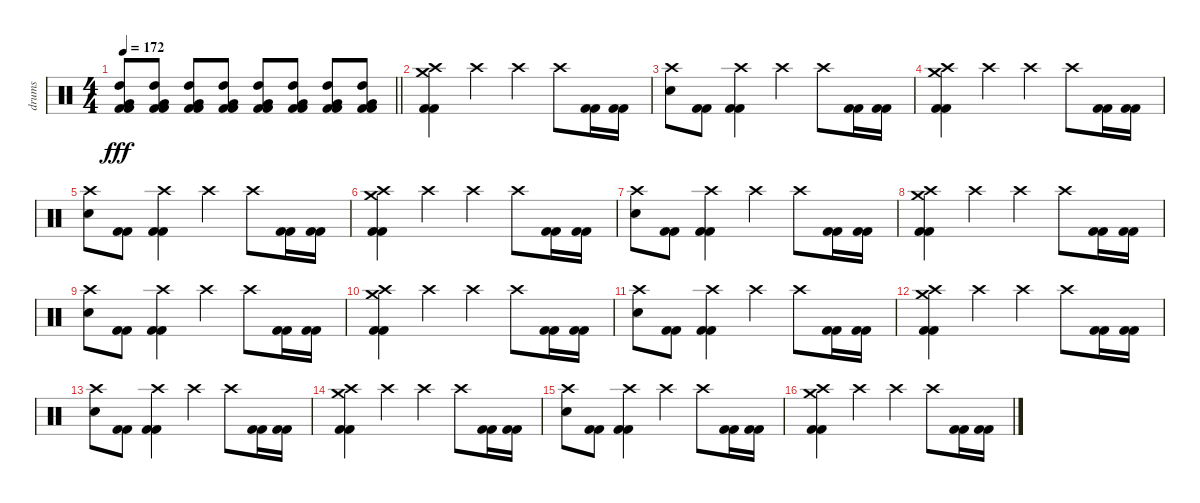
\track ("drums" "drums") {instrument percussion}
\staff {score}
\articulation defaults
\ts (4 4)
\tempo 172
\clef neutral
\barLineRight lightlight
\ks c
("Kick (hit) 2" "Kick (hit) 2" "Very Low Tom (hit)" "High Tom (hit)").8{dy fff} ("Kick (hit) 2" "Kick (hit) 2" "Very Low Tom (hit)" "High Tom (hit)").8 ("Kick (hit) 2" "Kick (hit) 2" "Very Low Tom (hit)" "High Tom (hit)").8 ("Kick (hit) 2" "Kick (hit) 2" "Very Low Tom (hit)" "High Tom (hit)").8 ("Kick (hit) 2" "Kick (hit) 2" "Very Low Tom (hit)" "High Tom (hit)").8 ("Kick (hit) 2" "Kick (hit) 2" "Very Low Tom (hit)" "High Tom (hit)").8 ("Kick (hit) 2" "Kick (hit) 2" "Very Low Tom (hit)" "High Tom (hit)").8 ("Kick (hit) 2" "Kick (hit) 2" "Very Low Tom (hit)" "High Tom (hit)").8 |
("Kick (hit) 2" "Kick (hit) 2" "Crash medium (hit)" "Crash high (hit)").4 "Crash high (hit)".4 "Crash high (hit)".4 "Crash high (hit)".8 ("Kick (hit) 2" "Kick (hit) 2").16 ("Kick (hit) 2" "Kick (hit) 2").16 |
("Electric Snare (hit)" "Crash high (hit)").8 ("Kick (hit) 2" "Kick (hit) 2").8 ("Kick (hit) 2" "Kick (hit) 2" "Crash high (hit)").4 "Crash high (hit)".4 "Crash high (hit)".8 ("Kick (hit) 2" "Kick (hit) 2").16 ("Kick (hit) 2" "Kick (hit) 2").16 |
("Kick (hit) 2" "Kick (hit) 2" "Crash medium (hit)" "Crash high (hit)").4 "Crash high (hit)".4 "Crash high (hit)".4 "Crash high (hit)".8 ("Kick (hit) 2" "Kick (hit) 2").16 ("Kick (hit) 2" "Kick (hit) 2").16 |
("Electric Snare (hit)" "Crash high (hit)").8 ("Kick (hit) 2" "Kick (hit) 2").8 ("Kick (hit) 2" "Kick (hit) 2" "Crash high (hit)").4 "Crash high (hit)".4 "Crash high (hit)".8 ("Kick (hit) 2" "Kick (hit) 2").16 ("Kick (hit) 2" "Kick (hit) 2").16 |
("Kick (hit) 2" "Kick (hit) 2" "Crash medium (hit)" "Crash high (hit)").4 "Crash high (hit)".4 "Crash high (hit)".4 "Crash high (hit)".8 ("Kick (hit) 2" "Kick (hit) 2").16 ("Kick (hit) 2" "Kick (hit) 2").16 |
("Electric Snare (hit)" "Crash high (hit)").8 ("Kick (hit) 2" "Kick (hit) 2").8 ("Kick (hit) 2" "Kick (hit) 2" "Crash high (hit)").4 "Crash high (hit)".4 "Crash high (hit)".8 ("Kick (hit) 2" "Kick (hit) 2").16 ("Kick (hit) 2" "Kick (hit) 2").16 |
("Kick (hit) 2" "Kick (hit) 2" "Crash medium (hit)" "Crash high (hit)").4 "Crash high (hit)".4 "Crash high (hit)".4 "Crash high (hit)".8 ("Kick (hit) 2" "Kick (hit) 2").16 ("Kick (hit) 2" "Kick (hit) 2").16 |
("Electric Snare (hit)" "Crash high (hit)").8 ("Kick (hit) 2" "Kick (hit) 2").8 ("Kick (hit) 2" "Kick (hit) 2" "Crash high (hit)").4 "Crash high (hit)".4 "Crash high (hit)".8 ("Kick (hit) 2" "Kick (hit) 2").16 ("Kick (hit) 2" "Kick (hit) 2").16 |
("Kick (hit) 2" "Kick (hit) 2" "Crash medium (hit)" "Crash high (hit)").4 "Crash high (hit)".4 "Crash high (hit)".4 "Crash high (hit)".8 ("Kick (hit) 2" "Kick (hit) 2").16 ("Kick (hit) 2" "Kick (hit) 2").16 |
("Electric Snare (hit)" "Crash high (hit)").8 ("Kick (hit) 2" "Kick (hit) 2").8 ("Kick (hit) 2" "Kick (hit) 2" "Crash high (hit)").4 "Crash high (hit)".4 "Crash high (hit)".8 ("Kick (hit) 2" "Kick (hit) 2").16 ("Kick (hit) 2" "Kick (hit) 2").16 |
("Kick (hit) 2" "Kick (hit) 2" "Crash medium (hit)" "Crash high (hit)").4 "Crash high (hit)".4 "Crash high (hit)".4 "Crash high (hit)".8 ("Kick (hit) 2" "Kick (hit) 2").16 ("Kick (hit) 2" "Kick (hit) 2").16 |
("Electric Snare (hit)" "Crash high (hit)").8 ("Kick (hit) 2" "Kick (hit) 2").8 ("Kick (hit) 2" "Kick (hit) 2" "Crash high (hit)").4 "Crash high (hit)".4 "Crash high (hit)".8 ("Kick (hit) 2" "Kick (hit) 2").16 ("Kick (hit) 2" "Kick (hit) 2").16 |
("Kick (hit) 2" "Kick (hit) 2" "Crash medium (hit)" "Crash high (hit)").4 "Crash high (hit)".4 "Crash high (hit)".4 "Crash high (hit)".8 ("Kick (hit) 2" "Kick (hit) 2").16 ("Kick (hit) 2" "Kick (hit) 2").16 |
("Electric Snare (hit)" "Crash high (hit)").8 ("Kick (hit) 2" "Kick (hit) 2").8 ("Kick (hit) 2" "Kick (hit) 2" "Crash high (hit)").4 "Crash high (hit)".4 "Crash high (hit)".8 ("Kick (hit) 2" "Kick (hit) 2").16 ("Kick (hit) 2" "Kick (hit) 2").16 |
("Kick (hit) 2" "Kick (hit) 2" "Crash medium (hit)" "Crash high (hit)").4 "Crash high (hit)".4 "Crash high (hit)".4 "Crash high (hit)".8 ("Kick (hit) 2" "Kick (hit) 2").16 ("Kick (hit) 2" "Kick (hit) 2").16
